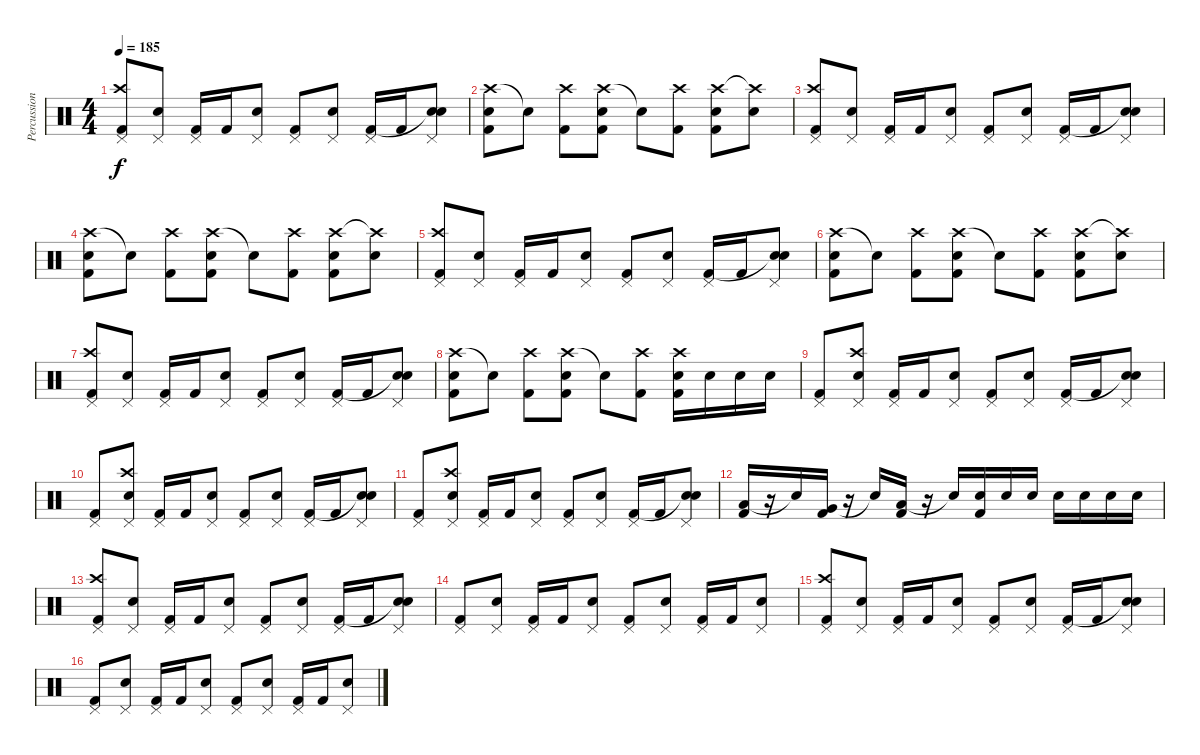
\track ("Percussions" "Percussion") {instrument percussion}
\staff {score}
\articulation defaults
\ts (4 4)
\tempo 185
\clef neutral
\ks c
("Pedal Hi-Hat (hit)" "Crash high (hit)" "Kick (hit) 2").8{dy f} ("Pedal Hi-Hat (hit)" "Snare (hit) 2").8 ("Pedal Hi-Hat (hit)" "Kick (hit) 2").16 "Kick (hit) 2".16 ("Pedal Hi-Hat (hit)" "Snare (hit) 2").8 ("Pedal Hi-Hat (hit)" "Kick (hit) 2").8 ("Pedal Hi-Hat (hit)" "Snare (hit) 2").8 ("Pedal Hi-Hat (hit)" "Kick (hit) 2").16 "Kick (hit) 2".16 ("Pedal Hi-Hat (hit)" "Snare (hit)"{t} "Snare (hit) 2").8 |
("Crash high (hit)" "Snare (hit) 2" "Kick (hit) 2").8 "Snare (hit)"{t}.8 ("Crash high (hit)" "Kick (hit) 2").8 ("Crash high (hit)" "Snare (hit) 2" "Kick (hit) 2").8 "Snare (hit)"{t}.8 ("Crash high (hit)" "Kick (hit) 2").8 ("Crash high (hit)" "Snare (hit) 2" "Kick (hit) 2").8 ("Crash high (hit)"{t} "Snare (hit) 2").8 |
("Pedal Hi-Hat (hit)" "Crash high (hit)" "Kick (hit) 2").8 ("Pedal Hi-Hat (hit)" "Snare (hit) 2").8 ("Pedal Hi-Hat (hit)" "Kick (hit) 2").16 "Kick (hit) 2".16 ("Pedal Hi-Hat (hit)" "Snare (hit) 2").8 ("Pedal Hi-Hat (hit)" "Kick (hit) 2").8 ("Pedal Hi-Hat (hit)" "Snare (hit) 2").8 ("Pedal Hi-Hat (hit)" "Kick (hit) 2").16 "Kick (hit) 2".16 ("Pedal Hi-Hat (hit)" "Snare (hit)"{t} "Snare (hit) 2").8 |
("Crash high (hit)" "Snare (hit) 2" "Kick (hit) 2").8 "Snare (hit)"{t}.8 ("Crash high (hit)" "Kick (hit) 2").8 ("Crash high (hit)" "Snare (hit) 2" "Kick (hit) 2").8 "Snare (hit)"{t}.8 ("Crash high (hit)" "Kick (hit) 2").8 ("Crash high (hit)" "Snare (hit) 2" "Kick (hit) 2").8 ("Crash high (hit)"{t} "Snare (hit) 2").8 |
("Pedal Hi-Hat (hit)" "Crash high (hit)" "Kick (hit) 2").8 ("Pedal Hi-Hat (hit)" "Snare (hit) 2").8 ("Pedal Hi-Hat (hit)" "Kick (hit) 2").16 "Kick (hit) 2".16 ("Pedal Hi-Hat (hit)" "Snare (hit) 2").8 ("Pedal Hi-Hat (hit)" "Kick (hit) 2").8 ("Pedal Hi-Hat (hit)" "Snare (hit) 2").8 ("Pedal Hi-Hat (hit)" "Kick (hit) 2").16 "Kick (hit) 2".16 ("Pedal Hi-Hat (hit)" "Snare (hit)"{t} "Snare (hit) 2").8 |
("Crash high (hit)" "Snare (hit) 2" "Kick (hit) 2").8 "Snare (hit)"{t}.8 ("Crash high (hit)" "Kick (hit) 2").8 ("Crash high (hit)" "Snare (hit) 2" "Kick (hit) 2").8 "Snare (hit)"{t}.8 ("Crash high (hit)" "Kick (hit) 2").8 ("Crash high (hit)" "Snare (hit) 2" "Kick (hit) 2").8 ("Crash high (hit)"{t} "Snare (hit) 2").8 |
("Pedal Hi-Hat (hit)" "Crash high (hit)" "Kick (hit) 2").8 ("Pedal Hi-Hat (hit)" "Snare (hit) 2").8 ("Pedal Hi-Hat (hit)" "Kick (hit) 2").16 "Kick (hit) 2".16 ("Pedal Hi-Hat (hit)" "Snare (hit) 2").8 ("Pedal Hi-Hat (hit)" "Kick (hit) 2").8 ("Pedal Hi-Hat (hit)" "Snare (hit) 2").8 ("Pedal Hi-Hat (hit)" "Kick (hit) 2").16 "Kick (hit) 2".16 ("Pedal Hi-Hat (hit)" "Snare (hit)"{t} "Snare (hit) 2").8 |
("Crash high (hit)" "Snare (hit) 2" "Kick (hit) 2").8 "Snare (hit)"{t}.8 ("Crash high (hit)" "Kick (hit) 2").8 ("Crash high (hit)" "Snare (hit) 2" "Kick (hit) 2").8 "Snare (hit)"{t}.8 ("Crash high (hit)" "Kick (hit) 2").8 ("Crash high (hit)" "Snare (hit) 2" "Kick (hit) 2").16 "Snare (hit) 2".16 "Snare (hit) 2".16 "Snare (hit) 2".16 |
("Pedal Hi-Hat (hit)" "Kick (hit) 2").8 ("Pedal Hi-Hat (hit)" "Crash high (hit)" "Snare (hit) 2").8 ("Pedal Hi-Hat (hit)" "Kick (hit) 2").16 "Kick (hit) 2".16 ("Pedal Hi-Hat (hit)" "Snare (hit) 2").8 ("Pedal Hi-Hat (hit)" "Kick (hit) 2").8 ("Pedal Hi-Hat (hit)" "Snare (hit) 2").8 ("Pedal Hi-Hat (hit)" "Kick (hit) 2").16 "Kick (hit) 2".16 ("Pedal Hi-Hat (hit)" "Snare (hit)"{t} "Snare (hit) 2").8 |
("Pedal Hi-Hat (hit)" "Kick (hit) 2").8 ("Pedal Hi-Hat (hit)" "Crash high (hit)" "Snare (hit) 2").8 ("Pedal Hi-Hat (hit)" "Kick (hit) 2").16 "Kick (hit) 2".16 ("Pedal Hi-Hat (hit)" "Snare (hit) 2").8 ("Pedal Hi-Hat (hit)" "Kick (hit) 2").8 ("Pedal Hi-Hat (hit)" "Snare (hit) 2").8 ("Pedal Hi-Hat (hit)" "Kick (hit) 2").16 "Kick (hit) 2".16 ("Pedal Hi-Hat (hit)" "Snare (hit)"{t} "Snare (hit) 2").8 |
("Pedal Hi-Hat (hit)" "Kick (hit) 2").8 ("Pedal Hi-Hat (hit)" "Crash high (hit)" "Snare (hit) 2").8 ("Pedal Hi-Hat (hit)" "Kick (hit) 2").16 "Kick (hit) 2".16 ("Pedal Hi-Hat (hit)" "Snare (hit) 2").8 ("Pedal Hi-Hat (hit)" "Kick (hit) 2").8 ("Pedal Hi-Hat (hit)" "Snare (hit) 2").8 ("Pedal Hi-Hat (hit)" "Kick (hit) 2").16 "Kick (hit) 2".16 ("Pedal Hi-Hat (hit)" "Snare (hit)"{t} "Snare (hit) 2").8 |
("Low Tom (hit)" "Kick (hit) 2").16 r.16 "Snare (hit)"{t}.16 ("Very Low Tom (hit)" "Kick (hit) 2").16 r.16 "Snare (hit)"{t}.16 ("Low Floor Tom (hit)" "Kick (hit) 2").16 r.16 "Snare (hit)"{t}.16 ("Snare (hit) 2" "Kick (hit) 2").16 "Snare (hit) 2".16 "Snare (hit) 2".16 "Snare (hit) 2".16 "Snare (hit) 2".16 "Snare (hit) 2".16 "Snare (hit) 2".16 |
("Pedal Hi-Hat (hit)" "Crash high (hit)" "Kick (hit) 2").8 ("Pedal Hi-Hat (hit)" "Snare (hit) 2").8 ("Pedal Hi-Hat (hit)" "Kick (hit) 2").16 "Kick (hit) 2".16 ("Pedal Hi-Hat (hit)" "Snare (hit) 2").8 ("Pedal Hi-Hat (hit)" "Kick (hit) 2").8 ("Pedal Hi-Hat (hit)" "Snare (hit) 2").8 ("Pedal Hi-Hat (hit)" "Kick (hit) 2").16 "Kick (hit) 2".16 ("Pedal Hi-Hat (hit)" "Snare (hit)"{t} "Snare (hit) 2").8 |
("Pedal Hi-Hat (hit)" "Kick (hit) 2").8 ("Pedal Hi-Hat (hit)" "Snare (hit) 2").8 ("Pedal Hi-Hat (hit)" "Kick (hit) 2").16 "Kick (hit) 2".16 ("Pedal Hi-Hat (hit)" "Snare (hit) 2").8 ("Pedal Hi-Hat (hit)" "Kick (hit) 2").8 ("Pedal Hi-Hat (hit)" "Snare (hit) 2").8 ("Pedal Hi-Hat (hit)" "Kick (hit) 2").16 "Kick (hit) 2".16 ("Pedal Hi-Hat (hit)" "Snare (hit) 2").8 |
("Pedal Hi-Hat (hit)" "Crash high (hit)" "Kick (hit) 2").8 ("Pedal Hi-Hat (hit)" "Snare (hit) 2").8 ("Pedal Hi-Hat (hit)" "Kick (hit) 2").16 "Kick (hit) 2".16 ("Pedal Hi-Hat (hit)" "Snare (hit) 2").8 ("Pedal Hi-Hat (hit)" "Kick (hit) 2").8 ("Pedal Hi-Hat (hit)" "Snare (hit) 2").8 ("Pedal Hi-Hat (hit)" "Kick (hit) 2").16 "Kick (hit) 2".16 ("Pedal Hi-Hat (hit)" "Snare (hit)"{t} "Snare (hit) 2").8 |
("Pedal Hi-Hat (hit)" "Kick (hit) 2").8 ("Pedal Hi-Hat (hit)" "Snare (hit) 2").8 ("Pedal Hi-Hat (hit)" "Kick (hit) 2").16 "Kick (hit) 2".16 ("Pedal Hi-Hat (hit)" "Snare (hit) 2").8 ("Pedal Hi-Hat (hit)" "Kick (hit) 2").8 ("Pedal Hi-Hat (hit)" "Snare (hit) 2").8 ("Pedal Hi-Hat (hit)" "Kick (hit) 2").16 "Kick (hit) 2".16 ("Pedal Hi-Hat (hit)" "Snare (hit) 2").8
